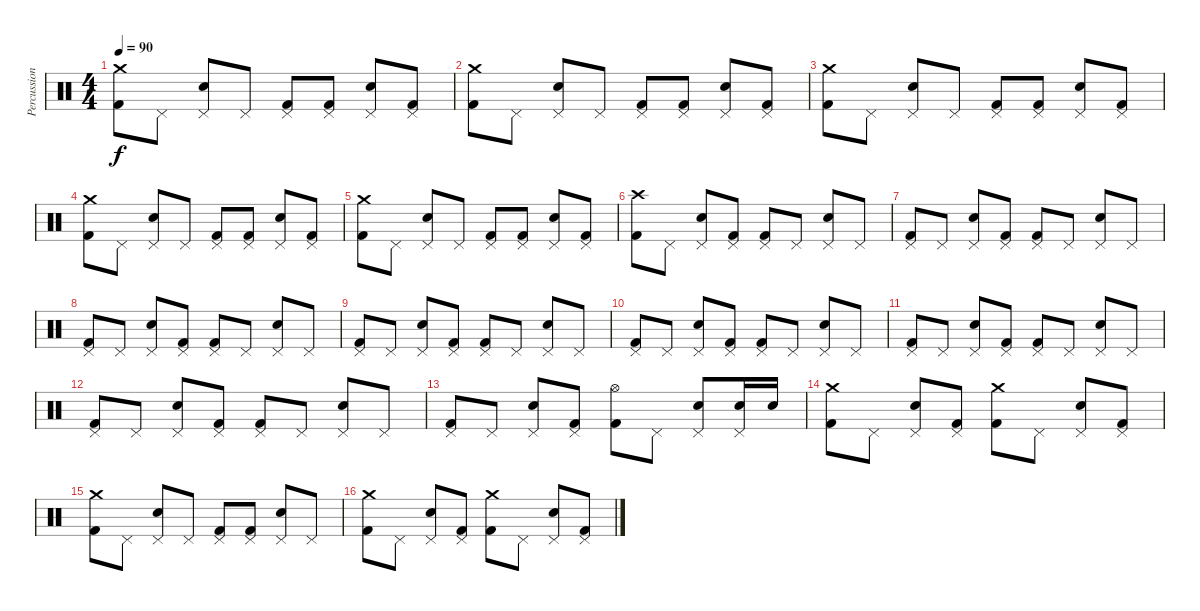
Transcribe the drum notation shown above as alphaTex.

\track ("Percussion" "Percussion") {instrument percussion}
\staff {score}
\articulation defaults
\ts (4 4)
\tempo 90
\clef neutral
\ks c
("Crash medium (hit)" "Kick (hit) 2").8{dy f} "Pedal Hi-Hat (hit)".8 ("Pedal Hi-Hat (hit)" "Snare (hit) 2").8 "Pedal Hi-Hat (hit)".8 ("Pedal Hi-Hat (hit)" "Kick (hit) 2").8 ("Pedal Hi-Hat (hit)" "Kick (hit) 2").8 ("Pedal Hi-Hat (hit)" "Snare (hit) 2").8 ("Pedal Hi-Hat (hit)" "Kick (hit) 2").8 |
("Crash medium (hit)" "Kick (hit) 2").8 "Pedal Hi-Hat (hit)".8 ("Pedal Hi-Hat (hit)" "Snare (hit) 2").8 "Pedal Hi-Hat (hit)".8 ("Pedal Hi-Hat (hit)" "Kick (hit) 2").8 ("Pedal Hi-Hat (hit)" "Kick (hit) 2").8 ("Pedal Hi-Hat (hit)" "Snare (hit) 2").8 ("Pedal Hi-Hat (hit)" "Kick (hit) 2").8 |
("Crash medium (hit)" "Kick (hit) 2").8 "Pedal Hi-Hat (hit)".8 ("Pedal Hi-Hat (hit)" "Snare (hit) 2").8 "Pedal Hi-Hat (hit)".8 ("Pedal Hi-Hat (hit)" "Kick (hit) 2").8 ("Pedal Hi-Hat (hit)" "Kick (hit) 2").8 ("Pedal Hi-Hat (hit)" "Snare (hit) 2").8 ("Pedal Hi-Hat (hit)" "Kick (hit) 2").8 |
("Crash medium (hit)" "Kick (hit) 2").8 "Pedal Hi-Hat (hit)".8 ("Pedal Hi-Hat (hit)" "Snare (hit) 2").8 "Pedal Hi-Hat (hit)".8 ("Pedal Hi-Hat (hit)" "Kick (hit) 2").8 ("Pedal Hi-Hat (hit)" "Kick (hit) 2").8 ("Pedal Hi-Hat (hit)" "Snare (hit) 2").8 ("Pedal Hi-Hat (hit)" "Kick (hit) 2").8 |
("Crash medium (hit)" "Kick (hit) 2").8 "Pedal Hi-Hat (hit)".8 ("Pedal Hi-Hat (hit)" "Snare (hit) 2").8 "Pedal Hi-Hat (hit)".8 ("Pedal Hi-Hat (hit)" "Kick (hit) 2").8 ("Pedal Hi-Hat (hit)" "Kick (hit) 2").8 ("Pedal Hi-Hat (hit)" "Snare (hit) 2").8 ("Pedal Hi-Hat (hit)" "Kick (hit) 2").8 |
("Crash high (hit)" "Kick (hit) 2").8 "Pedal Hi-Hat (hit)".8 ("Pedal Hi-Hat (hit)" "Snare (hit) 2").8 ("Pedal Hi-Hat (hit)" "Kick (hit) 2").8 ("Pedal Hi-Hat (hit)" "Kick (hit) 2").8 "Pedal Hi-Hat (hit)".8 ("Pedal Hi-Hat (hit)" "Snare (hit) 2").8 "Pedal Hi-Hat (hit)".8 |
("Pedal Hi-Hat (hit)" "Kick (hit) 2").8 "Pedal Hi-Hat (hit)".8 ("Pedal Hi-Hat (hit)" "Snare (hit) 2").8 ("Pedal Hi-Hat (hit)" "Kick (hit) 2").8 ("Pedal Hi-Hat (hit)" "Kick (hit) 2").8 "Pedal Hi-Hat (hit)".8 ("Pedal Hi-Hat (hit)" "Snare (hit) 2").8 "Pedal Hi-Hat (hit)".8 |
("Pedal Hi-Hat (hit)" "Kick (hit) 2").8 "Pedal Hi-Hat (hit)".8 ("Pedal Hi-Hat (hit)" "Snare (hit) 2").8 ("Pedal Hi-Hat (hit)" "Kick (hit) 2").8 ("Pedal Hi-Hat (hit)" "Kick (hit) 2").8 "Pedal Hi-Hat (hit)".8 ("Pedal Hi-Hat (hit)" "Snare (hit) 2").8 "Pedal Hi-Hat (hit)".8 |
("Pedal Hi-Hat (hit)" "Kick (hit) 2").8 "Pedal Hi-Hat (hit)".8 ("Pedal Hi-Hat (hit)" "Snare (hit) 2").8 ("Pedal Hi-Hat (hit)" "Kick (hit) 2").8 ("Pedal Hi-Hat (hit)" "Kick (hit) 2").8 "Pedal Hi-Hat (hit)".8 ("Pedal Hi-Hat (hit)" "Snare (hit) 2").8 "Pedal Hi-Hat (hit)".8 |
("Pedal Hi-Hat (hit)" "Kick (hit) 2").8 "Pedal Hi-Hat (hit)".8 ("Pedal Hi-Hat (hit)" "Snare (hit) 2").8 ("Pedal Hi-Hat (hit)" "Kick (hit) 2").8 ("Pedal Hi-Hat (hit)" "Kick (hit) 2").8 "Pedal Hi-Hat (hit)".8 ("Pedal Hi-Hat (hit)" "Snare (hit) 2").8 "Pedal Hi-Hat (hit)".8 |
("Pedal Hi-Hat (hit)" "Kick (hit) 2").8 "Pedal Hi-Hat (hit)".8 ("Pedal Hi-Hat (hit)" "Snare (hit) 2").8 ("Pedal Hi-Hat (hit)" "Kick (hit) 2").8 ("Pedal Hi-Hat (hit)" "Kick (hit) 2").8 "Pedal Hi-Hat (hit)".8 ("Pedal Hi-Hat (hit)" "Snare (hit) 2").8 "Pedal Hi-Hat (hit)".8 |
("Pedal Hi-Hat (hit)" "Kick (hit) 2").8 "Pedal Hi-Hat (hit)".8 ("Pedal Hi-Hat (hit)" "Snare (hit) 2").8 ("Pedal Hi-Hat (hit)" "Kick (hit) 2").8 ("Pedal Hi-Hat (hit)" "Kick (hit) 2").8 "Pedal Hi-Hat (hit)".8 ("Pedal Hi-Hat (hit)" "Snare (hit) 2").8 "Pedal Hi-Hat (hit)".8 |
("Pedal Hi-Hat (hit)" "Kick (hit) 2").8 "Pedal Hi-Hat (hit)".8 ("Pedal Hi-Hat (hit)" "Snare (hit) 2").8 ("Pedal Hi-Hat (hit)" "Kick (hit) 2").8 ("Hi-Hat (open)" "Kick (hit) 2").8 "Pedal Hi-Hat (hit)".8 ("Pedal Hi-Hat (hit)" "Snare (hit) 2").8 ("Pedal Hi-Hat (hit)" "Snare (hit) 2").16 "Snare (hit) 2".16 |
("Crash medium (hit)" "Kick (hit) 2").8 "Pedal Hi-Hat (hit)".8 ("Pedal Hi-Hat (hit)" "Snare (hit) 2").8 ("Pedal Hi-Hat (hit)" "Kick (hit) 2").8 ("Crash medium (hit)" "Kick (hit) 2").8 "Pedal Hi-Hat (hit)".8 ("Pedal Hi-Hat (hit)" "Snare (hit) 2").8 ("Pedal Hi-Hat (hit)" "Kick (hit) 2").8 |
("Crash medium (hit)" "Kick (hit) 2").8 "Pedal Hi-Hat (hit)".8 ("Pedal Hi-Hat (hit)" "Snare (hit) 2").8 "Pedal Hi-Hat (hit)".8 ("Pedal Hi-Hat (hit)" "Kick (hit) 2").8 ("Pedal Hi-Hat (hit)" "Kick (hit) 2").8 ("Pedal Hi-Hat (hit)" "Snare (hit) 2").8 "Pedal Hi-Hat (hit)".8 |
("Crash medium (hit)" "Kick (hit) 2").8 "Pedal Hi-Hat (hit)".8 ("Pedal Hi-Hat (hit)" "Snare (hit) 2").8 ("Pedal Hi-Hat (hit)" "Kick (hit) 2").8 ("Crash medium (hit)" "Kick (hit) 2").8 "Pedal Hi-Hat (hit)".8 ("Pedal Hi-Hat (hit)" "Snare (hit) 2").8 ("Pedal Hi-Hat (hit)" "Kick (hit) 2").8
